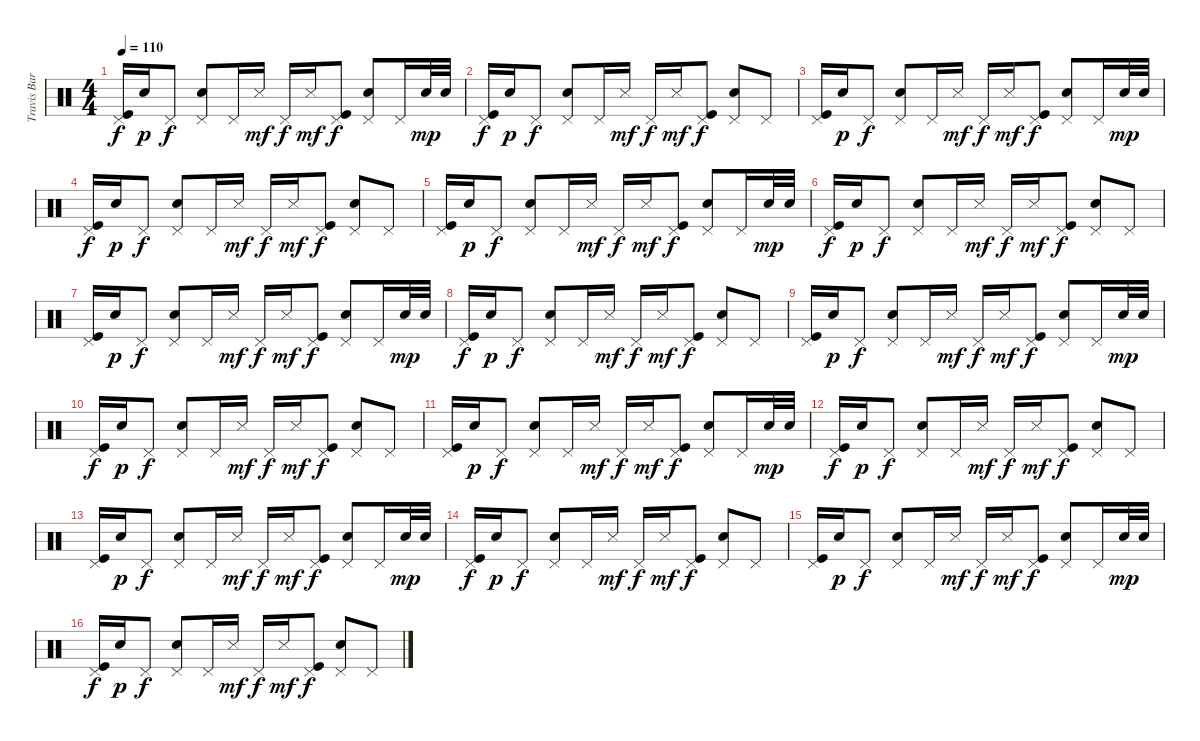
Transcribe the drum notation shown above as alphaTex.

\track ("Travis Barker Drums" "Travis Bar") {instrument percussion}
\staff {score}
\articulation defaults
\ts (4 4)
\tempo 110
\clef neutral
\ks c
("Pedal Hi-Hat (hit)" "Kick (hit)").16{dy f} "Snare (hit) 2".16{dy p} "Pedal Hi-Hat (hit)".8{dy f} ("Pedal Hi-Hat (hit)" "Snare (hit) 2").8 "Pedal Hi-Hat (hit)".16 "Snare (side stick) 3".16{dy mf} "Pedal Hi-Hat (hit)".16{dy f} "Snare (side stick) 3".16{dy mf} ("Pedal Hi-Hat (hit)" "Kick (hit)").8{dy f} ("Pedal Hi-Hat (hit)" "Snare (hit) 2").8 "Pedal Hi-Hat (hit)".16 "Snare (hit) 2".32{dy mp} "Snare (hit) 2".32 |
("Pedal Hi-Hat (hit)" "Kick (hit)").16{dy f} "Snare (hit) 2".16{dy p} "Pedal Hi-Hat (hit)".8{dy f} ("Pedal Hi-Hat (hit)" "Snare (hit) 2").8 "Pedal Hi-Hat (hit)".16 "Snare (side stick) 3".16{dy mf} "Pedal Hi-Hat (hit)".16{dy f} "Snare (side stick) 3".16{dy mf} ("Pedal Hi-Hat (hit)" "Kick (hit)").8{dy f} ("Pedal Hi-Hat (hit)" "Snare (hit) 2").8 "Pedal Hi-Hat (hit)".8 |
("Pedal Hi-Hat (hit)" "Kick (hit)").16 "Snare (hit) 2".16{dy p} "Pedal Hi-Hat (hit)".8{dy f} ("Pedal Hi-Hat (hit)" "Snare (hit) 2").8 "Pedal Hi-Hat (hit)".16 "Snare (side stick) 3".16{dy mf} "Pedal Hi-Hat (hit)".16{dy f} "Snare (side stick) 3".16{dy mf} ("Pedal Hi-Hat (hit)" "Kick (hit)").8{dy f} ("Pedal Hi-Hat (hit)" "Snare (hit) 2").8 "Pedal Hi-Hat (hit)".16 "Snare (hit) 2".32{dy mp} "Snare (hit) 2".32 |
("Pedal Hi-Hat (hit)" "Kick (hit)").16{dy f} "Snare (hit) 2".16{dy p} "Pedal Hi-Hat (hit)".8{dy f} ("Pedal Hi-Hat (hit)" "Snare (hit) 2").8 "Pedal Hi-Hat (hit)".16 "Snare (side stick) 3".16{dy mf} "Pedal Hi-Hat (hit)".16{dy f} "Snare (side stick) 3".16{dy mf} ("Pedal Hi-Hat (hit)" "Kick (hit)").8{dy f} ("Pedal Hi-Hat (hit)" "Snare (hit) 2").8 "Pedal Hi-Hat (hit)".8 |
("Pedal Hi-Hat (hit)" "Kick (hit)").16 "Snare (hit) 2".16{dy p} "Pedal Hi-Hat (hit)".8{dy f} ("Pedal Hi-Hat (hit)" "Snare (hit) 2").8 "Pedal Hi-Hat (hit)".16 "Snare (side stick) 3".16{dy mf} "Pedal Hi-Hat (hit)".16{dy f} "Snare (side stick) 3".16{dy mf} ("Pedal Hi-Hat (hit)" "Kick (hit)").8{dy f} ("Pedal Hi-Hat (hit)" "Snare (hit) 2").8 "Pedal Hi-Hat (hit)".16 "Snare (hit) 2".32{dy mp} "Snare (hit) 2".32 |
("Pedal Hi-Hat (hit)" "Kick (hit)").16{dy f} "Snare (hit) 2".16{dy p} "Pedal Hi-Hat (hit)".8{dy f} ("Pedal Hi-Hat (hit)" "Snare (hit) 2").8 "Pedal Hi-Hat (hit)".16 "Snare (side stick) 3".16{dy mf} "Pedal Hi-Hat (hit)".16{dy f} "Snare (side stick) 3".16{dy mf} ("Pedal Hi-Hat (hit)" "Kick (hit)").8{dy f} ("Pedal Hi-Hat (hit)" "Snare (hit) 2").8 "Pedal Hi-Hat (hit)".8 |
("Pedal Hi-Hat (hit)" "Kick (hit)").16 "Snare (hit) 2".16{dy p} "Pedal Hi-Hat (hit)".8{dy f} ("Pedal Hi-Hat (hit)" "Snare (hit) 2").8 "Pedal Hi-Hat (hit)".16 "Snare (side stick) 3".16{dy mf} "Pedal Hi-Hat (hit)".16{dy f} "Snare (side stick) 3".16{dy mf} ("Pedal Hi-Hat (hit)" "Kick (hit)").8{dy f} ("Pedal Hi-Hat (hit)" "Snare (hit) 2").8 "Pedal Hi-Hat (hit)".16 "Snare (hit) 2".32{dy mp} "Snare (hit) 2".32 |
("Pedal Hi-Hat (hit)" "Kick (hit)").16{dy f} "Snare (hit) 2".16{dy p} "Pedal Hi-Hat (hit)".8{dy f} ("Pedal Hi-Hat (hit)" "Snare (hit) 2").8 "Pedal Hi-Hat (hit)".16 "Snare (side stick) 3".16{dy mf} "Pedal Hi-Hat (hit)".16{dy f} "Snare (side stick) 3".16{dy mf} ("Pedal Hi-Hat (hit)" "Kick (hit)").8{dy f} ("Pedal Hi-Hat (hit)" "Snare (hit) 2").8 "Pedal Hi-Hat (hit)".8 |
("Pedal Hi-Hat (hit)" "Kick (hit)").16 "Snare (hit) 2".16{dy p} "Pedal Hi-Hat (hit)".8{dy f} ("Pedal Hi-Hat (hit)" "Snare (hit) 2").8 "Pedal Hi-Hat (hit)".16 "Snare (side stick) 3".16{dy mf} "Pedal Hi-Hat (hit)".16{dy f} "Snare (side stick) 3".16{dy mf} ("Pedal Hi-Hat (hit)" "Kick (hit)").8{dy f} ("Pedal Hi-Hat (hit)" "Snare (hit) 2").8 "Pedal Hi-Hat (hit)".16 "Snare (hit) 2".32{dy mp} "Snare (hit) 2".32 |
("Pedal Hi-Hat (hit)" "Kick (hit)").16{dy f} "Snare (hit) 2".16{dy p} "Pedal Hi-Hat (hit)".8{dy f} ("Pedal Hi-Hat (hit)" "Snare (hit) 2").8 "Pedal Hi-Hat (hit)".16 "Snare (side stick) 3".16{dy mf} "Pedal Hi-Hat (hit)".16{dy f} "Snare (side stick) 3".16{dy mf} ("Pedal Hi-Hat (hit)" "Kick (hit)").8{dy f} ("Pedal Hi-Hat (hit)" "Snare (hit) 2").8 "Pedal Hi-Hat (hit)".8 |
("Pedal Hi-Hat (hit)" "Kick (hit)").16 "Snare (hit) 2".16{dy p} "Pedal Hi-Hat (hit)".8{dy f} ("Pedal Hi-Hat (hit)" "Snare (hit) 2").8 "Pedal Hi-Hat (hit)".16 "Snare (side stick) 3".16{dy mf} "Pedal Hi-Hat (hit)".16{dy f} "Snare (side stick) 3".16{dy mf} ("Pedal Hi-Hat (hit)" "Kick (hit)").8{dy f} ("Pedal Hi-Hat (hit)" "Snare (hit) 2").8 "Pedal Hi-Hat (hit)".16 "Snare (hit) 2".32{dy mp} "Snare (hit) 2".32 |
("Pedal Hi-Hat (hit)" "Kick (hit)").16{dy f} "Snare (hit) 2".16{dy p} "Pedal Hi-Hat (hit)".8{dy f} ("Pedal Hi-Hat (hit)" "Snare (hit) 2").8 "Pedal Hi-Hat (hit)".16 "Snare (side stick) 3".16{dy mf} "Pedal Hi-Hat (hit)".16{dy f} "Snare (side stick) 3".16{dy mf} ("Pedal Hi-Hat (hit)" "Kick (hit)").8{dy f} ("Pedal Hi-Hat (hit)" "Snare (hit) 2").8 "Pedal Hi-Hat (hit)".8 |
("Pedal Hi-Hat (hit)" "Kick (hit)").16 "Snare (hit) 2".16{dy p} "Pedal Hi-Hat (hit)".8{dy f} ("Pedal Hi-Hat (hit)" "Snare (hit) 2").8 "Pedal Hi-Hat (hit)".16 "Snare (side stick) 3".16{dy mf} "Pedal Hi-Hat (hit)".16{dy f} "Snare (side stick) 3".16{dy mf} ("Pedal Hi-Hat (hit)" "Kick (hit)").8{dy f} ("Pedal Hi-Hat (hit)" "Snare (hit) 2").8 "Pedal Hi-Hat (hit)".16 "Snare (hit) 2".32{dy mp} "Snare (hit) 2".32 |
("Pedal Hi-Hat (hit)" "Kick (hit)").16{dy f} "Snare (hit) 2".16{dy p} "Pedal Hi-Hat (hit)".8{dy f} ("Pedal Hi-Hat (hit)" "Snare (hit) 2").8 "Pedal Hi-Hat (hit)".16 "Snare (side stick) 3".16{dy mf} "Pedal Hi-Hat (hit)".16{dy f} "Snare (side stick) 3".16{dy mf} ("Pedal Hi-Hat (hit)" "Kick (hit)").8{dy f} ("Pedal Hi-Hat (hit)" "Snare (hit) 2").8 "Pedal Hi-Hat (hit)".8 |
("Pedal Hi-Hat (hit)" "Kick (hit)").16 "Snare (hit) 2".16{dy p} "Pedal Hi-Hat (hit)".8{dy f} ("Pedal Hi-Hat (hit)" "Snare (hit) 2").8 "Pedal Hi-Hat (hit)".16 "Snare (side stick) 3".16{dy mf} "Pedal Hi-Hat (hit)".16{dy f} "Snare (side stick) 3".16{dy mf} ("Pedal Hi-Hat (hit)" "Kick (hit)").8{dy f} ("Pedal Hi-Hat (hit)" "Snare (hit) 2").8 "Pedal Hi-Hat (hit)".16 "Snare (hit) 2".32{dy mp} "Snare (hit) 2".32 |
("Pedal Hi-Hat (hit)" "Kick (hit)").16{dy f} "Snare (hit) 2".16{dy p} "Pedal Hi-Hat (hit)".8{dy f} ("Pedal Hi-Hat (hit)" "Snare (hit) 2").8 "Pedal Hi-Hat (hit)".16 "Snare (side stick) 3".16{dy mf} "Pedal Hi-Hat (hit)".16{dy f} "Snare (side stick) 3".16{dy mf} ("Pedal Hi-Hat (hit)" "Kick (hit)").8{dy f} ("Pedal Hi-Hat (hit)" "Snare (hit) 2").8 "Pedal Hi-Hat (hit)".8
